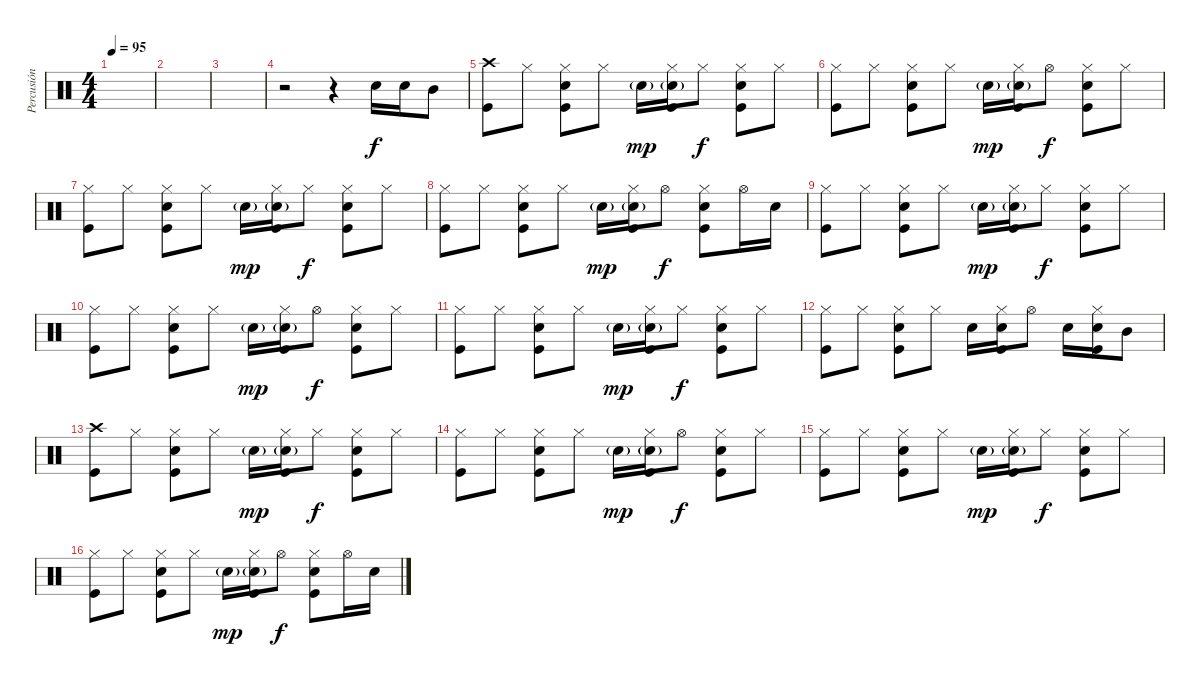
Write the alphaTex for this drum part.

\track ("Percusión" "Percusión") {instrument percussion}
\staff {score}
\articulation defaults
\ts (4 4)
\tempo 95
\clef neutral
\ks c
|
|
|
r.2 r.4 "Snare (hit) 2".16 "Snare (hit) 2".16 "Mid Tom (hit)".8 |
("Crash high (hit)" "Kick (hit)").8 "Hi-Hat (closed)".8 ("Hi-Hat (closed)" "Snare (hit) 2" "Kick (hit)").8 "Hi-Hat (closed)".8 "Snare (hit) 2"{g}.16{dy mp} ("Hi-Hat (closed)" "Snare (hit) 2"{g} "Kick (hit)").16 "Hi-Hat (closed)".8{dy f} ("Hi-Hat (closed)" "Snare (hit) 2" "Kick (hit)").8 "Hi-Hat (closed)".8 |
("Hi-Hat (closed)" "Kick (hit)").8 "Hi-Hat (closed)".8 ("Hi-Hat (closed)" "Snare (hit) 2" "Kick (hit)").8 "Hi-Hat (closed)".8 "Snare (hit) 2"{g}.16{dy mp} ("Hi-Hat (closed)" "Snare (hit) 2"{g} "Kick (hit)").16 "Hi-Hat (open)".8{dy f} ("Hi-Hat (closed)" "Snare (hit) 2" "Kick (hit)").8 "Hi-Hat (closed)".8 |
("Hi-Hat (closed)" "Kick (hit)").8 "Hi-Hat (closed)".8 ("Hi-Hat (closed)" "Snare (hit) 2" "Kick (hit)").8 "Hi-Hat (closed)".8 "Snare (hit) 2"{g}.16{dy mp} ("Hi-Hat (closed)" "Snare (hit) 2"{g} "Kick (hit)").16 "Hi-Hat (closed)".8{dy f} ("Hi-Hat (closed)" "Snare (hit) 2" "Kick (hit)").8 "Hi-Hat (closed)".8 |
("Hi-Hat (closed)" "Kick (hit)").8 "Hi-Hat (closed)".8 ("Hi-Hat (closed)" "Snare (hit) 2" "Kick (hit)").8 "Hi-Hat (closed)".8 "Snare (hit) 2"{g}.16{dy mp} ("Hi-Hat (closed)" "Snare (hit) 2"{g} "Kick (hit)").16 "Hi-Hat (open)".8{dy f} ("Hi-Hat (closed)" "Snare (hit) 2" "Kick (hit)").8 "Hi-Hat (open)".16 "Snare (hit) 2".16 |
("Hi-Hat (closed)" "Kick (hit)").8 "Hi-Hat (closed)".8 ("Hi-Hat (closed)" "Snare (hit) 2" "Kick (hit)").8 "Hi-Hat (closed)".8 "Snare (hit) 2"{g}.16{dy mp} ("Hi-Hat (closed)" "Snare (hit) 2"{g} "Kick (hit)").16 "Hi-Hat (closed)".8{dy f} ("Hi-Hat (closed)" "Snare (hit) 2" "Kick (hit)").8 "Hi-Hat (closed)".8 |
("Hi-Hat (closed)" "Kick (hit)").8 "Hi-Hat (closed)".8 ("Hi-Hat (closed)" "Snare (hit) 2" "Kick (hit)").8 "Hi-Hat (closed)".8 "Snare (hit) 2"{g}.16{dy mp} ("Hi-Hat (closed)" "Snare (hit) 2"{g} "Kick (hit)").16 "Hi-Hat (open)".8{dy f} ("Hi-Hat (closed)" "Snare (hit) 2" "Kick (hit)").8 "Hi-Hat (closed)".8 |
("Hi-Hat (closed)" "Kick (hit)").8 "Hi-Hat (closed)".8 ("Hi-Hat (closed)" "Snare (hit) 2" "Kick (hit)").8 "Hi-Hat (closed)".8 "Snare (hit) 2"{g}.16{dy mp} ("Hi-Hat (closed)" "Snare (hit) 2"{g} "Kick (hit)").16 "Hi-Hat (closed)".8{dy f} ("Hi-Hat (closed)" "Snare (hit) 2" "Kick (hit)").8 "Hi-Hat (closed)".8 |
("Hi-Hat (closed)" "Kick (hit)").8 "Hi-Hat (closed)".8 ("Hi-Hat (closed)" "Snare (hit) 2" "Kick (hit)").8 "Hi-Hat (closed)".8 "Snare (hit) 2".16 ("Hi-Hat (closed)" "Snare (hit) 2" "Kick (hit)").16 "Hi-Hat (open)".8 "Snare (hit) 2".16 ("Hi-Hat (closed)" "Snare (hit) 2" "Kick (hit)").16 "Mid Tom (hit)".8 |
("Crash high (hit)" "Kick (hit)").8 "Hi-Hat (closed)".8 ("Hi-Hat (closed)" "Snare (hit) 2" "Kick (hit)").8 "Hi-Hat (closed)".8 "Snare (hit) 2"{g}.16{dy mp} ("Hi-Hat (closed)" "Snare (hit) 2"{g} "Kick (hit)").16 "Hi-Hat (closed)".8{dy f} ("Hi-Hat (closed)" "Snare (hit) 2" "Kick (hit)").8 "Hi-Hat (closed)".8 |
("Hi-Hat (closed)" "Kick (hit)").8 "Hi-Hat (closed)".8 ("Hi-Hat (closed)" "Snare (hit) 2" "Kick (hit)").8 "Hi-Hat (closed)".8 "Snare (hit) 2"{g}.16{dy mp} ("Hi-Hat (closed)" "Snare (hit) 2"{g} "Kick (hit)").16 "Hi-Hat (open)".8{dy f} ("Hi-Hat (closed)" "Snare (hit) 2" "Kick (hit)").8 "Hi-Hat (closed)".8 |
("Hi-Hat (closed)" "Kick (hit)").8 "Hi-Hat (closed)".8 ("Hi-Hat (closed)" "Snare (hit) 2" "Kick (hit)").8 "Hi-Hat (closed)".8 "Snare (hit) 2"{g}.16{dy mp} ("Hi-Hat (closed)" "Snare (hit) 2"{g} "Kick (hit)").16 "Hi-Hat (closed)".8{dy f} ("Hi-Hat (closed)" "Snare (hit) 2" "Kick (hit)").8 "Hi-Hat (closed)".8 |
("Hi-Hat (closed)" "Kick (hit)").8 "Hi-Hat (closed)".8 ("Hi-Hat (closed)" "Snare (hit) 2" "Kick (hit)").8 "Hi-Hat (closed)".8 "Snare (hit) 2"{g}.16{dy mp} ("Hi-Hat (closed)" "Snare (hit) 2"{g} "Kick (hit)").16 "Hi-Hat (open)".8{dy f} ("Hi-Hat (closed)" "Snare (hit) 2" "Kick (hit)").8 "Hi-Hat (open)".16 "Snare (hit) 2".16
